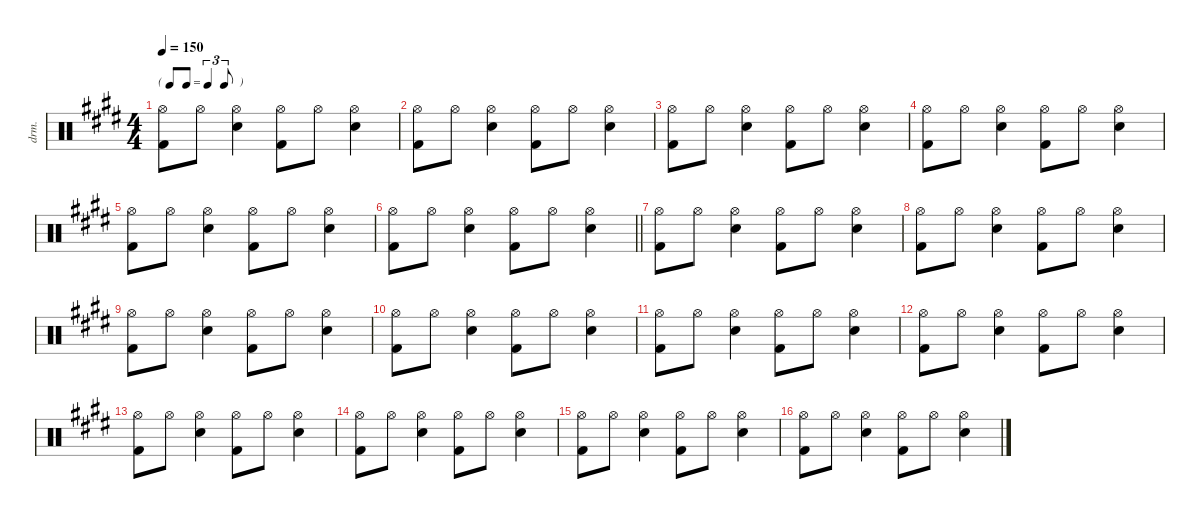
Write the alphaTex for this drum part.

\defaultSystemsLayout 4
\hideDynamics
\bracketExtendMode nobrackets
\otherSystemsTrackNameOrientation horizontal
\track ("Percussion" "drm.") {instrument percussion}
\staff {score}
\articulation defaults
\ts (4 4)
\tf triplet8th
\tempo 150
\clef neutral
\ks e
("Hi-Hat (open)"{acc forcenatural} "Kick (hit) 2"{acc forcenatural}).8{dy mf} "Hi-Hat (open)"{acc forcenatural}.8 ("Hi-Hat (open)"{acc forcenatural} "Snare (hit) 2"{acc forcenatural}).4 ("Hi-Hat (open)"{acc forcenatural} "Kick (hit) 2"{acc forcenatural}).8 "Hi-Hat (open)"{acc forcenatural}.8 ("Hi-Hat (open)"{acc forcenatural} "Snare (hit) 2"{acc forcenatural}).4 |
("Hi-Hat (open)"{acc forcenatural} "Kick (hit) 2"{acc forcenatural}).8 "Hi-Hat (open)"{acc forcenatural}.8 ("Hi-Hat (open)"{acc forcenatural} "Snare (hit) 2"{acc forcenatural}).4 ("Hi-Hat (open)"{acc forcenatural} "Kick (hit) 2"{acc forcenatural}).8 "Hi-Hat (open)"{acc forcenatural}.8 ("Hi-Hat (open)"{acc forcenatural} "Snare (hit) 2"{acc forcenatural}).4 |
("Hi-Hat (open)"{acc forcenatural} "Kick (hit) 2"{acc forcenatural}).8 "Hi-Hat (open)"{acc forcenatural}.8 ("Hi-Hat (open)"{acc forcenatural} "Snare (hit) 2"{acc forcenatural}).4 ("Hi-Hat (open)"{acc forcenatural} "Kick (hit) 2"{acc forcenatural}).8 "Hi-Hat (open)"{acc forcenatural}.8 ("Hi-Hat (open)"{acc forcenatural} "Snare (hit) 2"{acc forcenatural}).4 |
("Hi-Hat (open)"{acc forcenatural} "Kick (hit) 2"{acc forcenatural}).8 "Hi-Hat (open)"{acc forcenatural}.8 ("Hi-Hat (open)"{acc forcenatural} "Snare (hit) 2"{acc forcenatural}).4 ("Hi-Hat (open)"{acc forcenatural} "Kick (hit) 2"{acc forcenatural}).8 "Hi-Hat (open)"{acc forcenatural}.8 ("Hi-Hat (open)"{acc forcenatural} "Snare (hit) 2"{acc forcenatural}).4 |
("Hi-Hat (open)"{acc forcenatural} "Kick (hit) 2"{acc forcenatural}).8 "Hi-Hat (open)"{acc forcenatural}.8 ("Hi-Hat (open)"{acc forcenatural} "Snare (hit) 2"{acc forcenatural}).4 ("Hi-Hat (open)"{acc forcenatural} "Kick (hit) 2"{acc forcenatural}).8 "Hi-Hat (open)"{acc forcenatural}.8 ("Hi-Hat (open)"{acc forcenatural} "Snare (hit) 2"{acc forcenatural}).4 |
\barLineRight lightlight
("Hi-Hat (open)"{acc forcenatural} "Kick (hit) 2"{acc forcenatural}).8 "Hi-Hat (open)"{acc forcenatural}.8 ("Hi-Hat (open)"{acc forcenatural} "Snare (hit) 2"{acc forcenatural}).4 ("Hi-Hat (open)"{acc forcenatural} "Kick (hit) 2"{acc forcenatural}).8 "Hi-Hat (open)"{acc forcenatural}.8 ("Hi-Hat (open)"{acc forcenatural} "Snare (hit) 2"{acc forcenatural}).4 |
("Hi-Hat (open)"{acc forcenatural} "Kick (hit) 2"{acc forcenatural}).8 "Hi-Hat (open)"{acc forcenatural}.8 ("Hi-Hat (open)"{acc forcenatural} "Snare (hit) 2"{acc forcenatural}).4 ("Hi-Hat (open)"{acc forcenatural} "Kick (hit) 2"{acc forcenatural}).8 "Hi-Hat (open)"{acc forcenatural}.8 ("Hi-Hat (open)"{acc forcenatural} "Snare (hit) 2"{acc forcenatural}).4 |
("Hi-Hat (open)"{acc forcenatural} "Kick (hit) 2"{acc forcenatural}).8 "Hi-Hat (open)"{acc forcenatural}.8 ("Hi-Hat (open)"{acc forcenatural} "Snare (hit) 2"{acc forcenatural}).4 ("Hi-Hat (open)"{acc forcenatural} "Kick (hit) 2"{acc forcenatural}).8 "Hi-Hat (open)"{acc forcenatural}.8 ("Hi-Hat (open)"{acc forcenatural} "Snare (hit) 2"{acc forcenatural}).4 |
("Hi-Hat (open)"{acc forcenatural} "Kick (hit) 2"{acc forcenatural}).8 "Hi-Hat (open)"{acc forcenatural}.8 ("Hi-Hat (open)"{acc forcenatural} "Snare (hit) 2"{acc forcenatural}).4 ("Hi-Hat (open)"{acc forcenatural} "Kick (hit) 2"{acc forcenatural}).8 "Hi-Hat (open)"{acc forcenatural}.8 ("Hi-Hat (open)"{acc forcenatural} "Snare (hit) 2"{acc forcenatural}).4 |
("Hi-Hat (open)"{acc forcenatural} "Kick (hit) 2"{acc forcenatural}).8 "Hi-Hat (open)"{acc forcenatural}.8 ("Hi-Hat (open)"{acc forcenatural} "Snare (hit) 2"{acc forcenatural}).4 ("Hi-Hat (open)"{acc forcenatural} "Kick (hit) 2"{acc forcenatural}).8 "Hi-Hat (open)"{acc forcenatural}.8 ("Hi-Hat (open)"{acc forcenatural} "Snare (hit) 2"{acc forcenatural}).4 |
("Hi-Hat (open)"{acc forcenatural} "Kick (hit) 2"{acc forcenatural}).8 "Hi-Hat (open)"{acc forcenatural}.8 ("Hi-Hat (open)"{acc forcenatural} "Snare (hit) 2"{acc forcenatural}).4 ("Hi-Hat (open)"{acc forcenatural} "Kick (hit) 2"{acc forcenatural}).8 "Hi-Hat (open)"{acc forcenatural}.8 ("Hi-Hat (open)"{acc forcenatural} "Snare (hit) 2"{acc forcenatural}).4 |
("Hi-Hat (open)"{acc forcenatural} "Kick (hit) 2"{acc forcenatural}).8 "Hi-Hat (open)"{acc forcenatural}.8 ("Hi-Hat (open)"{acc forcenatural} "Snare (hit) 2"{acc forcenatural}).4 ("Hi-Hat (open)"{acc forcenatural} "Kick (hit) 2"{acc forcenatural}).8 "Hi-Hat (open)"{acc forcenatural}.8 ("Hi-Hat (open)"{acc forcenatural} "Snare (hit) 2"{acc forcenatural}).4 |
("Hi-Hat (open)"{acc forcenatural} "Kick (hit) 2"{acc forcenatural}).8 "Hi-Hat (open)"{acc forcenatural}.8 ("Hi-Hat (open)"{acc forcenatural} "Snare (hit) 2"{acc forcenatural}).4 ("Hi-Hat (open)"{acc forcenatural} "Kick (hit) 2"{acc forcenatural}).8 "Hi-Hat (open)"{acc forcenatural}.8 ("Hi-Hat (open)"{acc forcenatural} "Snare (hit) 2"{acc forcenatural}).4 |
("Hi-Hat (open)"{acc forcenatural} "Kick (hit) 2"{acc forcenatural}).8 "Hi-Hat (open)"{acc forcenatural}.8 ("Hi-Hat (open)"{acc forcenatural} "Snare (hit) 2"{acc forcenatural}).4 ("Hi-Hat (open)"{acc forcenatural} "Kick (hit) 2"{acc forcenatural}).8 "Hi-Hat (open)"{acc forcenatural}.8 ("Hi-Hat (open)"{acc forcenatural} "Snare (hit) 2"{acc forcenatural}).4 |
("Hi-Hat (open)"{acc forcenatural} "Kick (hit) 2"{acc forcenatural}).8 "Hi-Hat (open)"{acc forcenatural}.8 ("Hi-Hat (open)"{acc forcenatural} "Snare (hit) 2"{acc forcenatural}).4 ("Hi-Hat (open)"{acc forcenatural} "Kick (hit) 2"{acc forcenatural}).8 "Hi-Hat (open)"{acc forcenatural}.8 ("Hi-Hat (open)"{acc forcenatural} "Snare (hit) 2"{acc forcenatural}).4 |
("Hi-Hat (open)"{acc forcenatural} "Kick (hit) 2"{acc forcenatural}).8 "Hi-Hat (open)"{acc forcenatural}.8 ("Hi-Hat (open)"{acc forcenatural} "Snare (hit) 2"{acc forcenatural}).4 ("Hi-Hat (open)"{acc forcenatural} "Kick (hit) 2"{acc forcenatural}).8 "Hi-Hat (open)"{acc forcenatural}.8 ("Hi-Hat (open)"{acc forcenatural} "Snare (hit) 2"{acc forcenatural}).4
